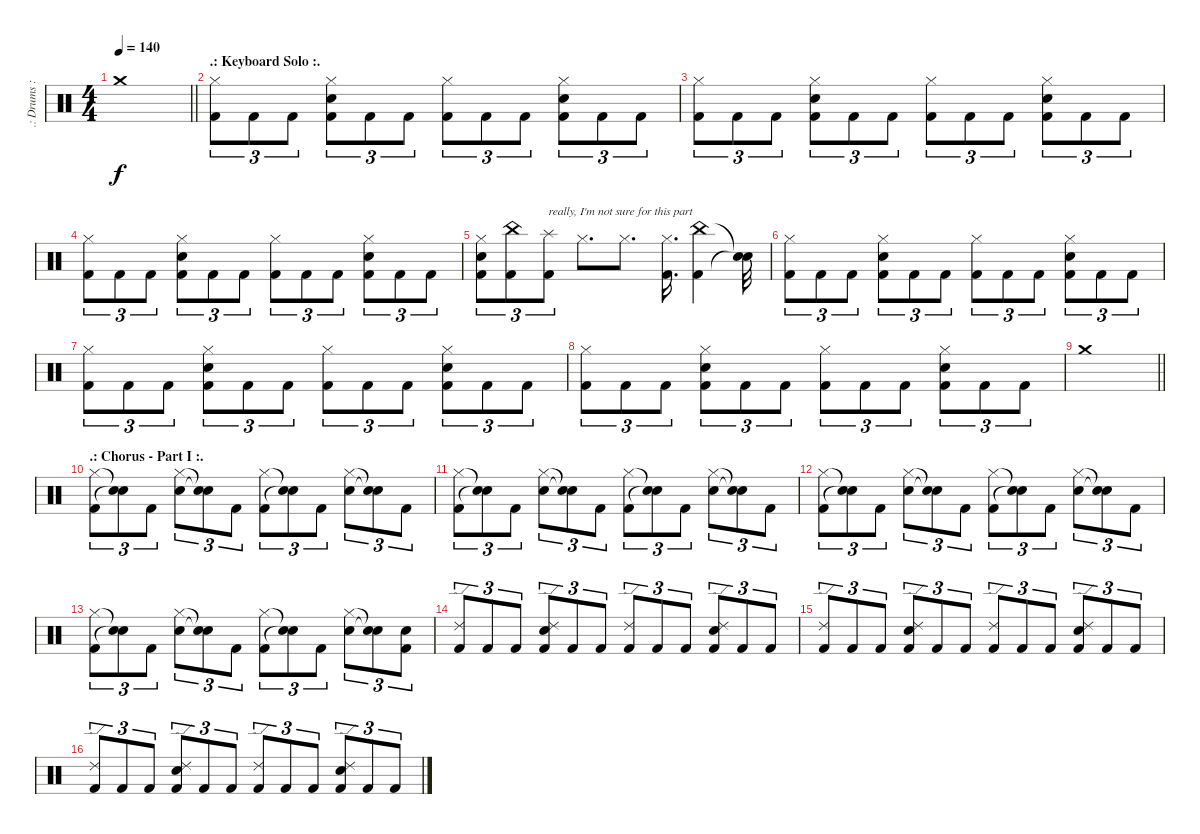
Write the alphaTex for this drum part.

\track (".: Drums :." ".: Drums :") {instrument percussion}
\staff {score}
\articulation defaults
\ts (4 4)
\tempo 140
\clef neutral
\barLineRight lightlight
\ks c "Crash medium (hit)".1{dy f}
|
\section ("" ".: Keyboard Solo :.")
("Hi-Hat (closed)" "Kick (hit) 2").8{tu (3 2)} "Kick (hit) 2".8{tu (3 2)} "Kick (hit) 2".8{tu (3 2)} ("Hi-Hat (closed)" "Snare (hit) 2" "Kick (hit) 2").8{tu (3 2)} "Kick (hit) 2".8{tu (3 2)} "Kick (hit) 2".8{tu (3 2)} ("Hi-Hat (closed)" "Kick (hit) 2").8{tu (3 2)} "Kick (hit) 2".8{tu (3 2)} "Kick (hit) 2".8{tu (3 2)} ("Hi-Hat (closed)" "Snare (hit) 2" "Kick (hit) 2").8{tu (3 2)} "Kick (hit) 2".8{tu (3 2)} "Kick (hit) 2".8{tu (3 2)} |
("Hi-Hat (closed)" "Kick (hit) 2").8{tu (3 2)} "Kick (hit) 2".8{tu (3 2)} "Kick (hit) 2".8{tu (3 2)} ("Hi-Hat (closed)" "Snare (hit) 2" "Kick (hit) 2").8{tu (3 2)} "Kick (hit) 2".8{tu (3 2)} "Kick (hit) 2".8{tu (3 2)} ("Hi-Hat (closed)" "Kick (hit) 2").8{tu (3 2)} "Kick (hit) 2".8{tu (3 2)} "Kick (hit) 2".8{tu (3 2)} ("Hi-Hat (closed)" "Snare (hit) 2" "Kick (hit) 2").8{tu (3 2)} "Kick (hit) 2".8{tu (3 2)} "Kick (hit) 2".8{tu (3 2)} |
("Hi-Hat (closed)" "Kick (hit) 2").8{tu (3 2)} "Kick (hit) 2".8{tu (3 2)} "Kick (hit) 2".8{tu (3 2)} ("Hi-Hat (closed)" "Snare (hit) 2" "Kick (hit) 2").8{tu (3 2)} "Kick (hit) 2".8{tu (3 2)} "Kick (hit) 2".8{tu (3 2)} ("Hi-Hat (closed)" "Kick (hit) 2").8{tu (3 2)} "Kick (hit) 2".8{tu (3 2)} "Kick (hit) 2".8{tu (3 2)} ("Hi-Hat (closed)" "Snare (hit) 2" "Kick (hit) 2").8{tu (3 2)} "Kick (hit) 2".8{tu (3 2)} "Kick (hit) 2".8{tu (3 2)} |
("Hi-Hat (closed)" "Snare (hit) 2" "Kick (hit) 2").8{tu (3 2)} ("China (hit)" "Kick (hit) 2").8{tu (3 2)} ("Splash (hit)" "Kick (hit) 2").8{tu (3 2) txt "really, I'm not sure for this part"} "Hi-Hat (closed)".8{d} "Hi-Hat (closed)".8{d} ("Hi-Hat (closed)" "Kick (hit) 2").16{d} ("China (hit)" "Kick (hit) 2").4 ("Snare (hit)"{t} "Snare (hit)"{t}).32 |
("Hi-Hat (closed)" "Kick (hit) 2").8{tu (3 2)} "Kick (hit) 2".8{tu (3 2)} "Kick (hit) 2".8{tu (3 2)} ("Hi-Hat (closed)" "Snare (hit) 2" "Kick (hit) 2").8{tu (3 2)} "Kick (hit) 2".8{tu (3 2)} "Kick (hit) 2".8{tu (3 2)} ("Hi-Hat (closed)" "Kick (hit) 2").8{tu (3 2)} "Kick (hit) 2".8{tu (3 2)} "Kick (hit) 2".8{tu (3 2)} ("Hi-Hat (closed)" "Snare (hit) 2" "Kick (hit) 2").8{tu (3 2)} "Kick (hit) 2".8{tu (3 2)} "Kick (hit) 2".8{tu (3 2)} |
("Hi-Hat (closed)" "Kick (hit) 2").8{tu (3 2)} "Kick (hit) 2".8{tu (3 2)} "Kick (hit) 2".8{tu (3 2)} ("Hi-Hat (closed)" "Snare (hit) 2" "Kick (hit) 2").8{tu (3 2)} "Kick (hit) 2".8{tu (3 2)} "Kick (hit) 2".8{tu (3 2)} ("Hi-Hat (closed)" "Kick (hit) 2").8{tu (3 2)} "Kick (hit) 2".8{tu (3 2)} "Kick (hit) 2".8{tu (3 2)} ("Hi-Hat (closed)" "Snare (hit) 2" "Kick (hit) 2").8{tu (3 2)} "Kick (hit) 2".8{tu (3 2)} "Kick (hit) 2".8{tu (3 2)} |
("Hi-Hat (closed)" "Kick (hit) 2").8{tu (3 2)} "Kick (hit) 2".8{tu (3 2)} "Kick (hit) 2".8{tu (3 2)} ("Hi-Hat (closed)" "Snare (hit) 2" "Kick (hit) 2").8{tu (3 2)} "Kick (hit) 2".8{tu (3 2)} "Kick (hit) 2".8{tu (3 2)} ("Hi-Hat (closed)" "Kick (hit) 2").8{tu (3 2)} "Kick (hit) 2".8{tu (3 2)} "Kick (hit) 2".8{tu (3 2)} ("Hi-Hat (closed)" "Snare (hit) 2" "Kick (hit) 2").8{tu (3 2)} "Kick (hit) 2".8{tu (3 2)} "Kick (hit) 2".8{tu (3 2)} |
\barLineRight lightlight "Crash medium (hit)".1
|
\section ("" ".: Chorus - Part I :.")
("Hi-Hat (closed)" "Kick (hit) 2").8{tu (3 2)} ("Snare (hit)"{t} "Snare (hit)"{t}).8{tu (3 2)} "Kick (hit) 2".8{tu (3 2)} ("Hi-Hat (closed)" "Snare (hit) 2").8{tu (3 2)} ("Snare (hit)"{t} "Snare (hit)"{t}).8{tu (3 2)} "Kick (hit) 2".8{tu (3 2)} ("Hi-Hat (closed)" "Kick (hit) 2").8{tu (3 2)} ("Snare (hit)"{t} "Snare (hit)"{t}).8{tu (3 2)} "Kick (hit) 2".8{tu (3 2)} ("Hi-Hat (closed)" "Snare (hit) 2").8{tu (3 2)} ("Snare (hit)"{t} "Snare (hit)"{t}).8{tu (3 2)} "Kick (hit) 2".8{tu (3 2)} |
("Hi-Hat (closed)" "Kick (hit) 2").8{tu (3 2)} ("Snare (hit)"{t} "Snare (hit)"{t}).8{tu (3 2)} "Kick (hit) 2".8{tu (3 2)} ("Hi-Hat (closed)" "Snare (hit) 2").8{tu (3 2)} ("Snare (hit)"{t} "Snare (hit)"{t}).8{tu (3 2)} "Kick (hit) 2".8{tu (3 2)} ("Hi-Hat (closed)" "Kick (hit) 2").8{tu (3 2)} ("Snare (hit)"{t} "Snare (hit)"{t}).8{tu (3 2)} "Kick (hit) 2".8{tu (3 2)} ("Hi-Hat (closed)" "Snare (hit) 2").8{tu (3 2)} ("Snare (hit)"{t} "Snare (hit)"{t}).8{tu (3 2)} "Kick (hit) 2".8{tu (3 2)} |
("Hi-Hat (closed)" "Kick (hit) 2").8{tu (3 2)} ("Snare (hit)"{t} "Snare (hit)"{t}).8{tu (3 2)} "Kick (hit) 2".8{tu (3 2)} ("Hi-Hat (closed)" "Snare (hit) 2").8{tu (3 2)} ("Snare (hit)"{t} "Snare (hit)"{t}).8{tu (3 2)} "Kick (hit) 2".8{tu (3 2)} ("Hi-Hat (closed)" "Kick (hit) 2").8{tu (3 2)} ("Snare (hit)"{t} "Snare (hit)"{t}).8{tu (3 2)} "Kick (hit) 2".8{tu (3 2)} ("Hi-Hat (closed)" "Snare (hit) 2").8{tu (3 2)} ("Snare (hit)"{t} "Snare (hit)"{t}).8{tu (3 2)} "Kick (hit) 2".8{tu (3 2)} |
("Hi-Hat (closed)" "Kick (hit) 2").8{tu (3 2)} ("Snare (hit)"{t} "Snare (hit)"{t}).8{tu (3 2)} "Kick (hit) 2".8{tu (3 2)} ("Hi-Hat (closed)" "Snare (hit) 2").8{tu (3 2)} ("Snare (hit)"{t} "Snare (hit)"{t}).8{tu (3 2)} "Kick (hit) 2".8{tu (3 2)} ("Hi-Hat (closed)" "Kick (hit) 2").8{tu (3 2)} ("Snare (hit)"{t} "Snare (hit)"{t}).8{tu (3 2)} "Kick (hit) 2".8{tu (3 2)} ("Hi-Hat (closed)" "Snare (hit) 2").8{tu (3 2)} ("Snare (hit)"{t} "Snare (hit)"{t}).8{tu (3 2)} ("Snare (hit) 2" "Kick (hit) 2").8{tu (3 2)} |
("Ride (edge) 2" "Kick (hit) 2").8{tu (3 2)} "Kick (hit) 2".8{tu (3 2)} "Kick (hit) 2".8{tu (3 2)} ("Ride (edge) 2" "Snare (hit) 2" "Kick (hit) 2").8{tu (3 2)} "Kick (hit) 2".8{tu (3 2)} "Kick (hit) 2".8{tu (3 2)} ("Ride (edge) 2" "Kick (hit) 2").8{tu (3 2)} "Kick (hit) 2".8{tu (3 2)} "Kick (hit) 2".8{tu (3 2)} ("Ride (edge) 2" "Snare (hit) 2" "Kick (hit) 2").8{tu (3 2)} "Kick (hit) 2".8{tu (3 2)} "Kick (hit) 2".8{tu (3 2)} |
("Ride (edge) 2" "Kick (hit) 2").8{tu (3 2)} "Kick (hit) 2".8{tu (3 2)} "Kick (hit) 2".8{tu (3 2)} ("Ride (edge) 2" "Snare (hit) 2" "Kick (hit) 2").8{tu (3 2)} "Kick (hit) 2".8{tu (3 2)} "Kick (hit) 2".8{tu (3 2)} ("Ride (edge) 2" "Kick (hit) 2").8{tu (3 2)} "Kick (hit) 2".8{tu (3 2)} "Kick (hit) 2".8{tu (3 2)} ("Ride (edge) 2" "Snare (hit) 2" "Kick (hit) 2").8{tu (3 2)} "Kick (hit) 2".8{tu (3 2)} "Kick (hit) 2".8{tu (3 2)} |
("Ride (edge) 2" "Kick (hit) 2").8{tu (3 2)} "Kick (hit) 2".8{tu (3 2)} "Kick (hit) 2".8{tu (3 2)} ("Ride (edge) 2" "Snare (hit) 2" "Kick (hit) 2").8{tu (3 2)} "Kick (hit) 2".8{tu (3 2)} "Kick (hit) 2".8{tu (3 2)} ("Ride (edge) 2" "Kick (hit) 2").8{tu (3 2)} "Kick (hit) 2".8{tu (3 2)} "Kick (hit) 2".8{tu (3 2)} ("Ride (edge) 2" "Snare (hit) 2" "Kick (hit) 2").8{tu (3 2)} "Kick (hit) 2".8{tu (3 2)} "Kick (hit) 2".8{tu (3 2)}
